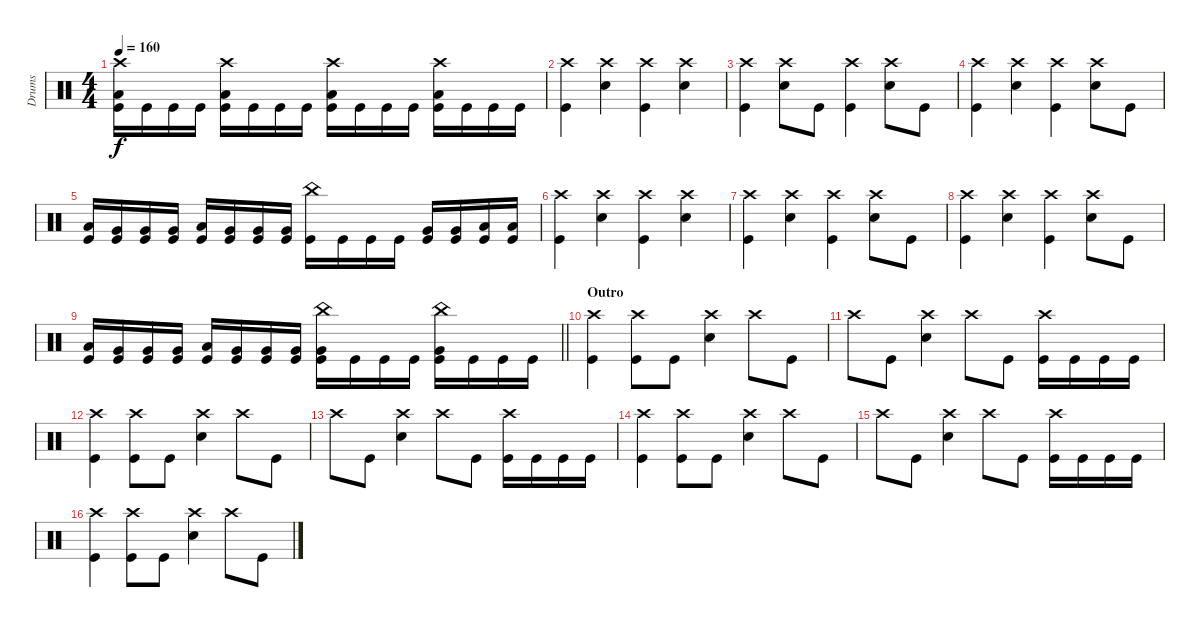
\track ("Drums" "Drums") {instrument percussion}
\staff {score}
\articulation defaults
\ts (4 4)
\tempo 160
\clef neutral
\ks c
("Kick (hit)" "Low Floor Tom (hit)" "Crash high (hit)").16{dy f} "Kick (hit)".16 "Kick (hit)".16 "Kick (hit)".16 ("Kick (hit)" "Low Floor Tom (hit)" "Crash high (hit)").16 "Kick (hit)".16 "Kick (hit)".16 "Kick (hit)".16 ("Kick (hit)" "Low Floor Tom (hit)" "Crash high (hit)").16 "Kick (hit)".16 "Kick (hit)".16 "Kick (hit)".16 ("Kick (hit)" "Low Floor Tom (hit)" "Crash high (hit)").16 "Kick (hit)".16 "Kick (hit)".16 "Kick (hit)".16 |
("Kick (hit)" "Crash high (hit)").4 ("Snare (hit) 2" "Crash high (hit)").4 ("Kick (hit)" "Crash high (hit)").4 ("Snare (hit) 2" "Crash high (hit)").4 |
("Kick (hit)" "Crash high (hit)").4 ("Snare (hit) 2" "Crash high (hit)").8 "Kick (hit)".8 ("Kick (hit)" "Crash high (hit)").4 ("Snare (hit) 2" "Crash high (hit)").8 "Kick (hit)".8 |
("Kick (hit)" "Crash high (hit)").4 ("Snare (hit) 2" "Crash high (hit)").4 ("Kick (hit)" "Crash high (hit)").4 ("Snare (hit) 2" "Crash high (hit)").8 "Kick (hit)".8 |
("Kick (hit)" "Low Tom (hit)").16 ("Kick (hit)" "Very Low Tom (hit)").16 ("Very Low Tom (hit)" "Kick (hit)").16 ("Kick (hit)" "Very Low Tom (hit)").16 ("Kick (hit)" "Low Tom (hit)").16 ("Kick (hit)" "Very Low Tom (hit)").16 ("Very Low Tom (hit)" "Kick (hit)").16 ("Kick (hit)" "Very Low Tom (hit)").16 ("Kick (hit)" "China (hit)").16 "Kick (hit)".16 "Kick (hit)".16 "Kick (hit)".16 ("Kick (hit)" "Very Low Tom (hit)").16 ("Kick (hit)" "Very Low Tom (hit)").16 ("Low Floor Tom (hit)" "Kick (hit)").16 ("Kick (hit)" "Low Floor Tom (hit)").16 |
("Kick (hit)" "Crash high (hit)").4 ("Snare (hit) 2" "Crash high (hit)").4 ("Kick (hit)" "Crash high (hit)").4 ("Snare (hit) 2" "Crash high (hit)").4 |
("Kick (hit)" "Crash high (hit)").4 ("Snare (hit) 2" "Crash high (hit)").4 ("Kick (hit)" "Crash high (hit)").4 ("Snare (hit) 2" "Crash high (hit)").8 "Kick (hit)".8 |
("Kick (hit)" "Crash high (hit)").4 ("Snare (hit) 2" "Crash high (hit)").4 ("Kick (hit)" "Crash high (hit)").4 ("Snare (hit) 2" "Crash high (hit)").8 "Kick (hit)".8 |
\barLineRight lightlight
("Kick (hit)" "Low Tom (hit)").16 ("Kick (hit)" "Very Low Tom (hit)").16 ("Very Low Tom (hit)" "Kick (hit)").16 ("Kick (hit)" "Very Low Tom (hit)").16 ("Kick (hit)" "Low Tom (hit)").16 ("Kick (hit)" "Very Low Tom (hit)").16 ("Very Low Tom (hit)" "Kick (hit)").16 ("Kick (hit)" "Very Low Tom (hit)").16 ("Kick (hit)" "Very Low Tom (hit)" "China (hit)").16 "Kick (hit)".16 "Kick (hit)".16 "Kick (hit)".16 ("Kick (hit)" "Very Low Tom (hit)" "China (hit)").16 "Kick (hit)".16 "Kick (hit)".16 "Kick (hit)".16 |
\section ("" "Outro")
("Kick (hit)" "Crash high (hit)").4 ("Kick (hit)" "Crash high (hit)").8 "Kick (hit)".8 ("Crash high (hit)" "Snare (hit) 2").4 "Crash high (hit)".8 "Kick (hit)".8 |
"Crash high (hit)".8 "Kick (hit)".8 ("Snare (hit) 2" "Crash high (hit)").4 "Crash high (hit)".8 "Kick (hit)".8 ("Kick (hit)" "Crash high (hit)").16 "Kick (hit)".16 "Kick (hit)".16 "Kick (hit)".16 |
("Kick (hit)" "Crash high (hit)").4 ("Kick (hit)" "Crash high (hit)").8 "Kick (hit)".8 ("Crash high (hit)" "Snare (hit) 2").4 "Crash high (hit)".8 "Kick (hit)".8 |
"Crash high (hit)".8 "Kick (hit)".8 ("Snare (hit) 2" "Crash high (hit)").4 "Crash high (hit)".8 "Kick (hit)".8 ("Kick (hit)" "Crash high (hit)").16 "Kick (hit)".16 "Kick (hit)".16 "Kick (hit)".16 |
("Kick (hit)" "Crash high (hit)").4 ("Kick (hit)" "Crash high (hit)").8 "Kick (hit)".8 ("Crash high (hit)" "Snare (hit) 2").4 "Crash high (hit)".8 "Kick (hit)".8 |
"Crash high (hit)".8 "Kick (hit)".8 ("Snare (hit) 2" "Crash high (hit)").4 "Crash high (hit)".8 "Kick (hit)".8 ("Kick (hit)" "Crash high (hit)").16 "Kick (hit)".16 "Kick (hit)".16 "Kick (hit)".16 |
("Kick (hit)" "Crash high (hit)").4 ("Kick (hit)" "Crash high (hit)").8 "Kick (hit)".8 ("Crash high (hit)" "Snare (hit) 2").4 "Crash high (hit)".8 "Kick (hit)".8
